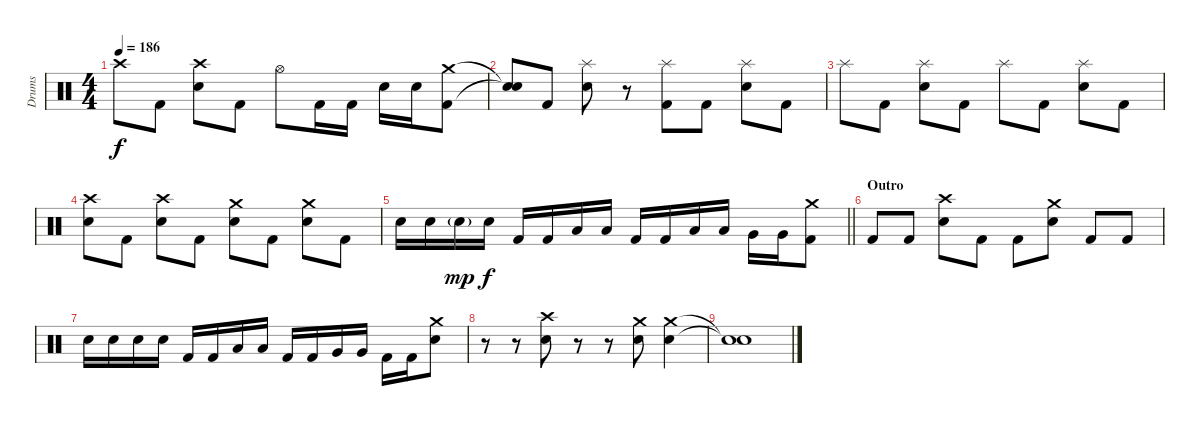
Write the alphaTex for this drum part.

\track ("Drums" "Drums") {instrument percussion}
\staff {score}
\articulation defaults
\ts (4 4)
\tempo 186
\clef neutral
\ks c "Crash high (hit)".8{dy f} "Kick (hit) 2".8
("Crash high (hit)" "Electric Snare (hit)").8 "Kick (hit) 2".8 "Hi-Hat (open)".8 "Kick (hit) 2".16 "Kick (hit) 2".16 "Electric Snare (hit)".16 "Electric Snare (hit)".16 ("Crash medium (hit)" "Kick (hit) 2").8 |
("Snare (hit)"{t} "Snare (hit)"{t}).8 "Kick (hit) 2".8 ("Splash (hit)" "Electric Snare (hit)").8 r.8 ("Splash (hit)" "Kick (hit) 2").8 "Kick (hit) 2".8 ("Splash (hit)" "Electric Snare (hit)").8 "Kick (hit) 2".8 |
"Splash (hit)".8 "Kick (hit) 2".8 ("Splash (hit)" "Electric Snare (hit)").8 "Kick (hit) 2".8 "Splash (hit)".8 "Kick (hit) 2".8 ("Splash (hit)" "Electric Snare (hit)").8 "Kick (hit) 2".8 |
("Crash high (hit)" "Electric Snare (hit)").8 "Kick (hit) 2".8 ("Crash high (hit)" "Electric Snare (hit)").8 "Kick (hit) 2".8 ("Crash medium (hit)" "Electric Snare (hit)").8 "Kick (hit) 2".8 ("Crash medium (hit)" "Electric Snare (hit)").8 "Kick (hit) 2".8 |
\barLineRight lightlight "Electric Snare (hit)".16 "Electric Snare (hit)".16 "Electric Snare (hit)"{g}.16{dy mp} "Electric Snare (hit)".16{dy f} "Kick (hit) 2".16 "Kick (hit) 2".16 "Low Tom (hit)".16 "Low Tom (hit)".16 "Kick (hit) 2".16 "Kick (hit) 2".16 "Low Tom (hit)".16 "Low Tom (hit)".16 "Very Low Tom (hit)".16 "Very Low Tom (hit)".16
("Crash medium (hit)" "Kick (hit) 2").8 |
\section ("" "Outro")
"Kick (hit) 2".8 "Kick (hit) 2".8 ("Crash high (hit)" "Electric Snare (hit)").8 "Kick (hit) 2".8 "Kick (hit) 2".8 ("Crash medium (hit)" "Electric Snare (hit)").8 "Kick (hit) 2".8 "Kick (hit) 2".8 |
"Electric Snare (hit)".16 "Electric Snare (hit)".16 "Electric Snare (hit)".16 "Electric Snare (hit)".16 "Kick (hit) 2".16 "Kick (hit) 2".16 "Low Tom (hit)".16 "Low Tom (hit)".16 "Kick (hit) 2".16 "Kick (hit) 2".16 "Very Low Tom (hit)".16 "Very Low Tom (hit)".16 "Kick (hit) 2".16 "Kick (hit) 2".16 ("Crash medium (hit)" "Electric Snare (hit)").8 |
r.8 r.8 ("Crash high (hit)" "Electric Snare (hit)").8 r.8 r.8 ("Crash medium (hit)" "Electric Snare (hit)").8 ("Crash medium (hit)" "Electric Snare (hit)").4 |
("Snare (hit)"{t} "Snare (hit)"{t}).1
